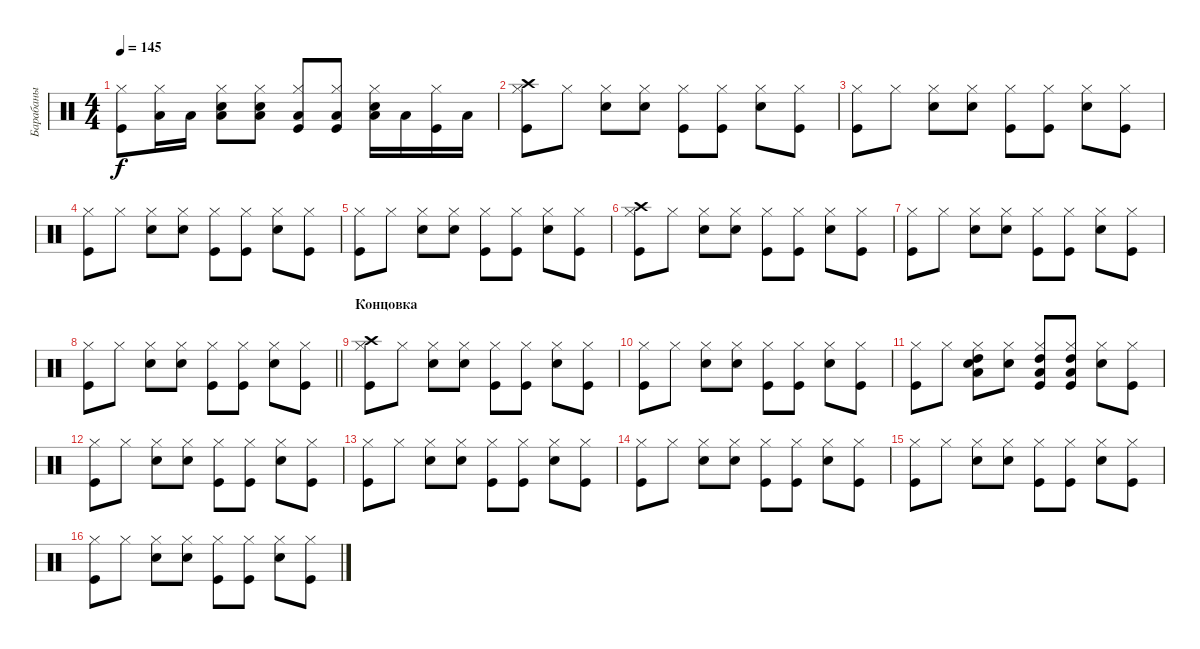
\track ("Барабаны" "Барабаны") {instrument percussion}
\staff {score}
\articulation defaults
\ts (4 4)
\tempo 145
\clef neutral
\ks c
("Kick (hit)" "Hi-Hat (closed)").8{dy f} ("Hi-Hat (closed)" "Low Tom (hit)").16 "Low Tom (hit)".16 ("Snare (hit) 2" "Hi-Hat (closed)" "Low Tom (hit)").8 ("Snare (hit) 2" "Hi-Hat (closed)" "Low Tom (hit)").8 ("Kick (hit)" "Hi-Hat (closed)" "Low Tom (hit)").8 ("Kick (hit)" "Hi-Hat (closed)" "Low Tom (hit)").8 ("Snare (hit) 2" "Hi-Hat (closed)" "Low Tom (hit)").16 "Low Tom (hit)".16 ("Kick (hit)" "Hi-Hat (closed)").16 "Low Tom (hit)".16 |
("Kick (hit)" "Hi-Hat (closed)" "Crash high (hit)").8 "Hi-Hat (closed)".8 ("Snare (hit) 2" "Hi-Hat (closed)").8 ("Snare (hit) 2" "Hi-Hat (closed)").8 ("Kick (hit)" "Hi-Hat (closed)").8 ("Kick (hit)" "Hi-Hat (closed)").8 ("Snare (hit) 2" "Hi-Hat (closed)").8 ("Kick (hit)" "Hi-Hat (closed)").8 |
("Kick (hit)" "Hi-Hat (closed)").8 "Hi-Hat (closed)".8 ("Snare (hit) 2" "Hi-Hat (closed)").8 ("Snare (hit) 2" "Hi-Hat (closed)").8 ("Kick (hit)" "Hi-Hat (closed)").8 ("Kick (hit)" "Hi-Hat (closed)").8 ("Snare (hit) 2" "Hi-Hat (closed)").8 ("Kick (hit)" "Hi-Hat (closed)").8 |
("Kick (hit)" "Hi-Hat (closed)").8 "Hi-Hat (closed)".8 ("Snare (hit) 2" "Hi-Hat (closed)").8 ("Snare (hit) 2" "Hi-Hat (closed)").8 ("Kick (hit)" "Hi-Hat (closed)").8 ("Kick (hit)" "Hi-Hat (closed)").8 ("Snare (hit) 2" "Hi-Hat (closed)").8 ("Kick (hit)" "Hi-Hat (closed)").8 |
("Kick (hit)" "Hi-Hat (closed)").8 "Hi-Hat (closed)".8 ("Snare (hit) 2" "Hi-Hat (closed)").8 ("Snare (hit) 2" "Hi-Hat (closed)").8 ("Kick (hit)" "Hi-Hat (closed)").8 ("Kick (hit)" "Hi-Hat (closed)").8 ("Snare (hit) 2" "Hi-Hat (closed)").8 ("Kick (hit)" "Hi-Hat (closed)").8 |
("Kick (hit)" "Hi-Hat (closed)" "Crash high (hit)").8 "Hi-Hat (closed)".8 ("Snare (hit) 2" "Hi-Hat (closed)").8 ("Snare (hit) 2" "Hi-Hat (closed)").8 ("Kick (hit)" "Hi-Hat (closed)").8 ("Kick (hit)" "Hi-Hat (closed)").8 ("Snare (hit) 2" "Hi-Hat (closed)").8 ("Kick (hit)" "Hi-Hat (closed)").8 |
("Kick (hit)" "Hi-Hat (closed)").8 "Hi-Hat (closed)".8 ("Snare (hit) 2" "Hi-Hat (closed)").8 ("Snare (hit) 2" "Hi-Hat (closed)").8 ("Kick (hit)" "Hi-Hat (closed)").8 ("Kick (hit)" "Hi-Hat (closed)").8 ("Snare (hit) 2" "Hi-Hat (closed)").8 ("Kick (hit)" "Hi-Hat (closed)").8 |
\barLineRight lightlight
("Kick (hit)" "Hi-Hat (closed)").8 "Hi-Hat (closed)".8 ("Snare (hit) 2" "Hi-Hat (closed)").8 ("Snare (hit) 2" "Hi-Hat (closed)").8 ("Kick (hit)" "Hi-Hat (closed)").8 ("Kick (hit)" "Hi-Hat (closed)").8 ("Snare (hit) 2" "Hi-Hat (closed)").8 ("Kick (hit)" "Hi-Hat (closed)").8 |
\section ("" "Концовка")
("Kick (hit)" "Hi-Hat (closed)" "Crash high (hit)").8 "Hi-Hat (closed)".8 ("Snare (hit) 2" "Hi-Hat (closed)").8 ("Snare (hit) 2" "Hi-Hat (closed)").8 ("Kick (hit)" "Hi-Hat (closed)").8 ("Kick (hit)" "Hi-Hat (closed)").8 ("Snare (hit) 2" "Hi-Hat (closed)").8 ("Kick (hit)" "Hi-Hat (closed)").8 |
("Kick (hit)" "Hi-Hat (closed)").8 "Hi-Hat (closed)".8 ("Snare (hit) 2" "Hi-Hat (closed)").8 ("Snare (hit) 2" "Hi-Hat (closed)").8 ("Kick (hit)" "Hi-Hat (closed)").8 ("Kick (hit)" "Hi-Hat (closed)").8 ("Snare (hit) 2" "Hi-Hat (closed)").8 ("Kick (hit)" "Hi-Hat (closed)").8 |
("Kick (hit)" "Hi-Hat (closed)").8 "Hi-Hat (closed)".8 ("Snare (hit) 2" "Hi-Hat (closed)" "Low Floor Tom (hit)" "High Tom (hit)").8 ("Snare (hit) 2" "Hi-Hat (closed)").8 ("Kick (hit)" "Hi-Hat (closed)" "Low Floor Tom (hit)" "High Tom (hit)").8 ("Kick (hit)" "Hi-Hat (closed)" "Low Floor Tom (hit)" "High Tom (hit)").8 ("Snare (hit) 2" "Hi-Hat (closed)").8 ("Kick (hit)" "Hi-Hat (closed)").8 |
("Kick (hit)" "Hi-Hat (closed)").8 "Hi-Hat (closed)".8 ("Snare (hit) 2" "Hi-Hat (closed)").8 ("Snare (hit) 2" "Hi-Hat (closed)").8 ("Kick (hit)" "Hi-Hat (closed)").8 ("Kick (hit)" "Hi-Hat (closed)").8 ("Snare (hit) 2" "Hi-Hat (closed)").8 ("Kick (hit)" "Hi-Hat (closed)").8 |
("Kick (hit)" "Hi-Hat (closed)").8 "Hi-Hat (closed)".8 ("Snare (hit) 2" "Hi-Hat (closed)").8 ("Snare (hit) 2" "Hi-Hat (closed)").8 ("Kick (hit)" "Hi-Hat (closed)").8 ("Kick (hit)" "Hi-Hat (closed)").8 ("Snare (hit) 2" "Hi-Hat (closed)").8 ("Kick (hit)" "Hi-Hat (closed)").8 |
("Kick (hit)" "Hi-Hat (closed)").8 "Hi-Hat (closed)".8 ("Snare (hit) 2" "Hi-Hat (closed)").8 ("Snare (hit) 2" "Hi-Hat (closed)").8 ("Kick (hit)" "Hi-Hat (closed)").8 ("Kick (hit)" "Hi-Hat (closed)").8 ("Snare (hit) 2" "Hi-Hat (closed)").8 ("Kick (hit)" "Hi-Hat (closed)").8 |
("Kick (hit)" "Hi-Hat (closed)").8 "Hi-Hat (closed)".8 ("Snare (hit) 2" "Hi-Hat (closed)").8 ("Snare (hit) 2" "Hi-Hat (closed)").8 ("Kick (hit)" "Hi-Hat (closed)").8 ("Kick (hit)" "Hi-Hat (closed)").8 ("Snare (hit) 2" "Hi-Hat (closed)").8 ("Kick (hit)" "Hi-Hat (closed)").8 |
("Kick (hit)" "Hi-Hat (closed)").8 "Hi-Hat (closed)".8 ("Snare (hit) 2" "Hi-Hat (closed)").8 ("Snare (hit) 2" "Hi-Hat (closed)").8 ("Kick (hit)" "Hi-Hat (closed)").8 ("Kick (hit)" "Hi-Hat (closed)").8 ("Snare (hit) 2" "Hi-Hat (closed)").8 ("Kick (hit)" "Hi-Hat (closed)").8
